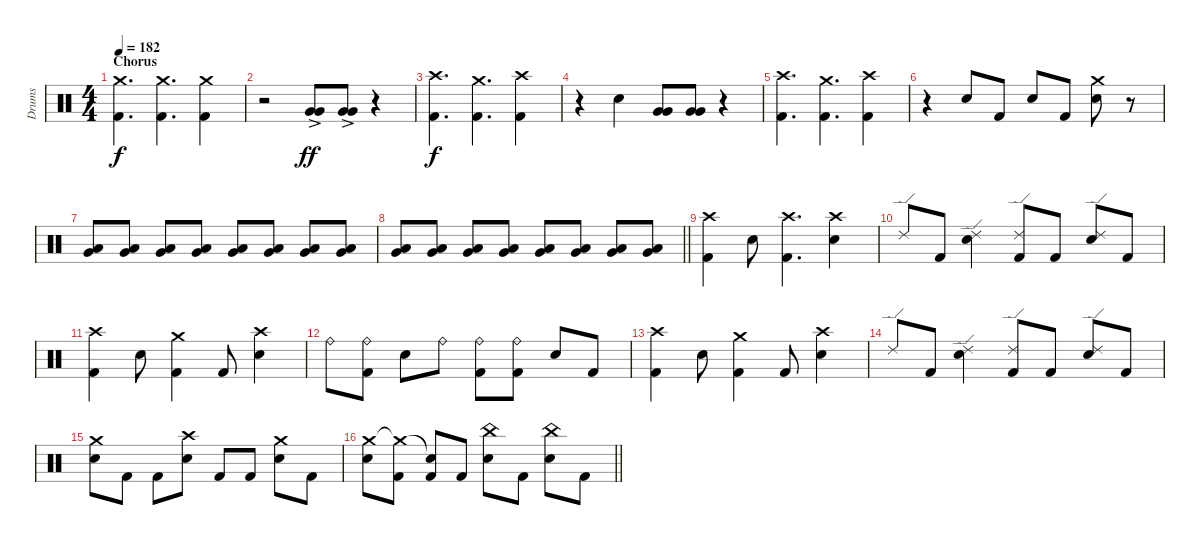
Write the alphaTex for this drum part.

\track ("Drums" "Drums") {instrument percussion}
\staff {score}
\articulation defaults
\ts (4 4)
\section ("" "Chorus")
\tempo 182
\clef neutral
\ks c
("Kick (hit) 2" "Crash medium (hit)").4{d dy f} ("Kick (hit) 2" "Crash medium (hit)").4{d} ("Kick (hit) 2" "Crash medium (hit)").4 |
r.2 ("Very Low Tom (hit)"{ac} "Very Low Tom (hit)").8{dy ff} ("Very Low Tom (hit)"{ac} "Very Low Tom (hit)").8 r.4 |
("Kick (hit) 2" "Crash high (hit)").4{d dy f} ("Kick (hit) 2" "Crash medium (hit)").4{d} ("Kick (hit) 2" "Crash high (hit)").4 |
r.4 "Snare (hit) 2".4 ("Very Low Tom (hit)" "Very Low Tom (hit)").8 ("Very Low Tom (hit)" "Very Low Tom (hit)").8 r.4 |
("Kick (hit) 2" "Crash high (hit)").4{d} ("Kick (hit) 2" "Crash medium (hit)").4{d} ("Kick (hit) 2" "Crash high (hit)").4 |
r.4 "Snare (hit) 2".8 "Kick (hit) 2".8 "Snare (hit) 2".8 "Kick (hit) 2".8 ("Snare (hit) 2" "Crash medium (hit)").8 r.8 |
("Very Low Tom (hit)" "Low Tom (hit)").8{volume 10} ("Very Low Tom (hit)" "Low Tom (hit)").8{volume 15} ("Very Low Tom (hit)" "Low Tom (hit)").8 ("Very Low Tom (hit)" "Low Tom (hit)").8 ("Very Low Tom (hit)" "Low Tom (hit)").8 ("Very Low Tom (hit)" "Low Tom (hit)").8 ("Very Low Tom (hit)" "Low Tom (hit)").8 ("Very Low Tom (hit)" "Low Tom (hit)").8 |
\barLineRight lightlight
("Very Low Tom (hit)" "Low Tom (hit)").8 ("Very Low Tom (hit)" "Low Tom (hit)").8 ("Very Low Tom (hit)" "Low Tom (hit)").8 ("Very Low Tom (hit)" "Low Tom (hit)").8 ("Very Low Tom (hit)" "Low Tom (hit)").8 ("Very Low Tom (hit)" "Low Tom (hit)").8 ("Very Low Tom (hit)" "Low Tom (hit)").8 ("Very Low Tom (hit)" "Low Tom (hit)").8 |
\section ("" "")
("Kick (hit) 2" "Crash high (hit)").4 "Snare (hit) 2".8 ("Kick (hit) 2" "Crash high (hit)").4{d} ("Snare (hit) 2" "Crash high (hit)").4 |
"Ride (edge) 2".8 "Kick (hit) 2".8 ("Snare (hit) 2" "Ride (edge) 2").4 ("Kick (hit) 2" "Ride (edge) 2").8 "Kick (hit) 2".8 ("Snare (hit) 2" "Ride (edge) 2").8 "Kick (hit) 2".8 |
("Kick (hit) 2" "Crash high (hit)").4 "Snare (hit) 2".8 ("Kick (hit) 2" "Crash medium (hit)").4 "Kick (hit) 2".8 ("Snare (hit) 2" "Crash high (hit)").4 |
"Ride (bell)".8 ("Kick (hit) 2" "Ride (bell)").8 "Snare (hit) 2".8 "Ride (bell)".8 ("Kick (hit) 2" "Ride (bell)").8 ("Kick (hit) 2" "Ride (bell)").8 "Snare (hit) 2".8 "Kick (hit) 2".8 |
("Kick (hit) 2" "Crash high (hit)").4 "Snare (hit) 2".8 ("Kick (hit) 2" "Crash medium (hit)").4 "Kick (hit) 2".8 ("Snare (hit) 2" "Crash high (hit)").4 |
"Ride (edge) 2".8 "Kick (hit) 2".8 ("Snare (hit) 2" "Ride (edge) 2").4 ("Kick (hit) 2" "Ride (edge) 2").8 "Kick (hit) 2".8 ("Snare (hit) 2" "Ride (edge) 2").8 "Kick (hit) 2".8 |
("Snare (hit) 2" "Crash medium (hit)").8 "Kick (hit) 2".8 "Kick (hit) 2".8 ("Snare (hit) 2" "Crash high (hit)").8 "Kick (hit) 2".8 "Kick (hit) 2".8 ("Snare (hit) 2" "Crash medium (hit)").8 "Kick (hit) 2".8 |
\barLineRight lightlight
("Snare (hit) 2" "Crash medium (hit)").8 ("Kick (hit) 2" "Crash medium (hit)"{t}).8 ("Kick (hit) 2" "Snare (hit)"{t}).8 "Kick (hit) 2".8 ("Snare (hit) 2" "China (hit)").8 "Kick (hit) 2".8 ("Snare (hit) 2" "China (hit)").8 "Kick (hit) 2".8
